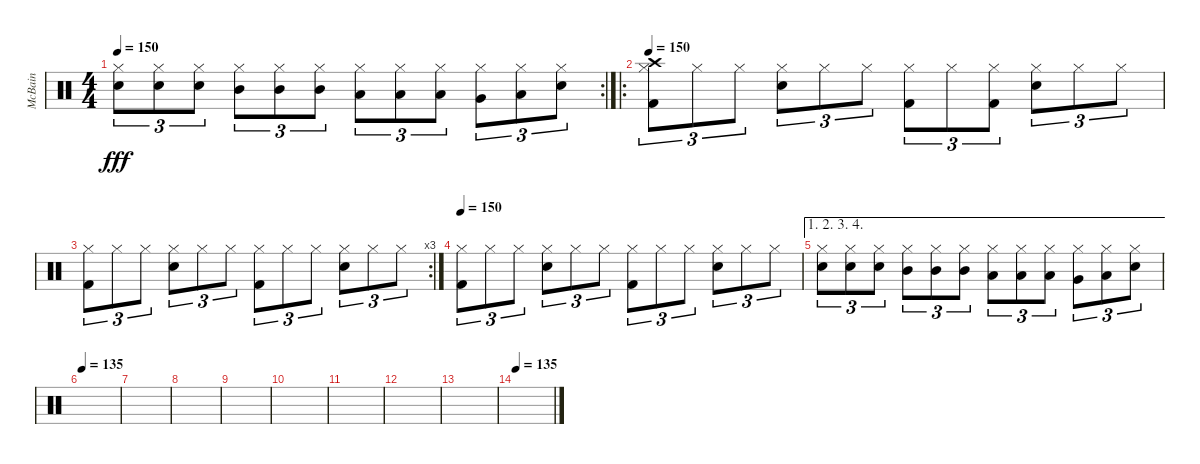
\track ("McBain" "McBain") {instrument percussion}
\staff {score}
\articulation defaults
\rc 2
\ts (4 4)
\tempo 150
\clef neutral
\ks c
("Snare (hit) 2" "Hi-Hat (closed)").8{tu (3 2) dy fff} ("Snare (hit) 2" "Hi-Hat (closed)").8{tu (3 2)} ("Snare (hit) 2" "Hi-Hat (closed)").8{tu (3 2)} ("Mid Tom (hit)" "Hi-Hat (closed)").8{tu (3 2)} ("Mid Tom (hit)" "Hi-Hat (closed)").8{tu (3 2)} ("Mid Tom (hit)" "Hi-Hat (closed)").8{tu (3 2)} ("Low Tom (hit)" "Hi-Hat (closed)").8{tu (3 2)} ("Low Tom (hit)" "Hi-Hat (closed)").8{tu (3 2)} ("Low Tom (hit)" "Hi-Hat (closed)").8{tu (3 2)} ("Very Low Tom (hit)" "Hi-Hat (closed)").8{tu (3 2)} ("Low Floor Tom (hit)" "Hi-Hat (closed)").8{tu (3 2)} ("Electric Snare (hit)" "Hi-Hat (closed)").8{tu (3 2)} |
\ro
\tempo 150
("Hi-Hat (closed)" "Kick (hit) 2" "Crash high (hit)").8{tu (3 2)} "Hi-Hat (closed)".8{tu (3 2)} "Hi-Hat (closed)".8{tu (3 2)} ("Hi-Hat (closed)" "Snare (hit) 2").8{tu (3 2)} "Hi-Hat (closed)".8{tu (3 2)} "Hi-Hat (closed)".8{tu (3 2)} ("Hi-Hat (closed)" "Kick (hit) 2").8{tu (3 2)} "Hi-Hat (closed)".8{tu (3 2)} ("Hi-Hat (closed)" "Kick (hit) 2").8{tu (3 2)} ("Hi-Hat (closed)" "Snare (hit) 2").8{tu (3 2)} "Hi-Hat (closed)".8{tu (3 2)} "Hi-Hat (closed)".8{tu (3 2)} |
\rc 3
("Hi-Hat (closed)" "Kick (hit) 2").8{tu (3 2)} "Hi-Hat (closed)".8{tu (3 2)} "Hi-Hat (closed)".8{tu (3 2)} ("Hi-Hat (closed)" "Snare (hit) 2").8{tu (3 2)} "Hi-Hat (closed)".8{tu (3 2)} "Hi-Hat (closed)".8{tu (3 2)} ("Hi-Hat (closed)" "Kick (hit) 2").8{tu (3 2)} "Hi-Hat (closed)".8{tu (3 2)} "Hi-Hat (closed)".8{tu (3 2)} ("Hi-Hat (closed)" "Snare (hit) 2").8{tu (3 2)} "Hi-Hat (closed)".8{tu (3 2)} "Hi-Hat (closed)".8{tu (3 2)} |
\tempo 150
("Hi-Hat (closed)" "Kick (hit) 2").8{tu (3 2)} "Hi-Hat (closed)".8{tu (3 2)} "Hi-Hat (closed)".8{tu (3 2)} ("Hi-Hat (closed)" "Snare (hit) 2").8{tu (3 2)} "Hi-Hat (closed)".8{tu (3 2)} "Hi-Hat (closed)".8{tu (3 2)} ("Hi-Hat (closed)" "Kick (hit) 2").8{tu (3 2)} "Hi-Hat (closed)".8{tu (3 2)} "Hi-Hat (closed)".8{tu (3 2)} ("Hi-Hat (closed)" "Snare (hit) 2").8{tu (3 2)} "Hi-Hat (closed)".8{tu (3 2)} "Hi-Hat (closed)".8{tu (3 2)} |
\ae (1 2 3 4)
("Snare (hit) 2" "Hi-Hat (closed)").8{tu (3 2)} ("Snare (hit) 2" "Hi-Hat (closed)").8{tu (3 2)} ("Snare (hit) 2" "Hi-Hat (closed)").8{tu (3 2)} ("Mid Tom (hit)" "Hi-Hat (closed)").8{tu (3 2)} ("Mid Tom (hit)" "Hi-Hat (closed)").8{tu (3 2)} ("Mid Tom (hit)" "Hi-Hat (closed)").8{tu (3 2)} ("Low Tom (hit)" "Hi-Hat (closed)").8{tu (3 2)} ("Low Tom (hit)" "Hi-Hat (closed)").8{tu (3 2)} ("Low Tom (hit)" "Hi-Hat (closed)").8{tu (3 2)} ("Very Low Tom (hit)" "Hi-Hat (closed)").8{tu (3 2)} ("Low Floor Tom (hit)" "Hi-Hat (closed)").8{tu (3 2)} ("Electric Snare (hit)" "Hi-Hat (closed)").8{tu (3 2)} |
\tempo 135
|
|
|
|
|
|
|
|
\tempo 135
